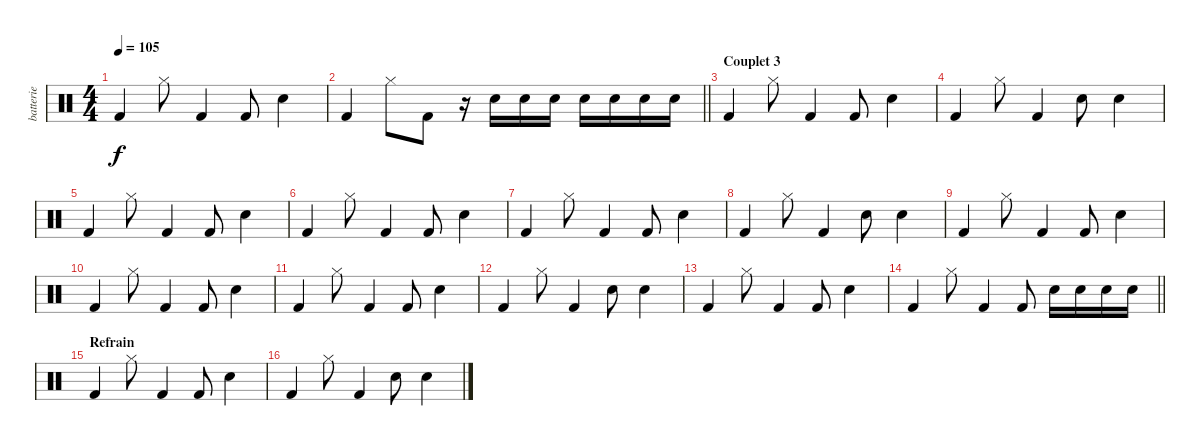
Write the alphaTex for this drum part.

\track ("batterie" "batterie") {instrument percussion}
\staff {score}
\articulation defaults
\ts (4 4)
\tempo 105
\clef neutral
\ks c "Kick (hit) 2".4{dy f} "Hi-Hat (closed)".8 "Kick (hit) 2".4 "Kick (hit) 2".8 "Electric Snare (hit)".4
|
\barLineRight lightlight "Kick (hit) 2".4 "Hi-Hat (closed)".8 "Kick (hit) 2".8
r.16 "Electric Snare (hit)".16 "Electric Snare (hit)".16 "Electric Snare (hit)".16 "Electric Snare (hit)".16 "Electric Snare (hit)".16 "Electric Snare (hit)".16 "Electric Snare (hit)".16 |
\section ("" "Couplet 3")
"Kick (hit) 2".4 "Hi-Hat (closed)".8 "Kick (hit) 2".4 "Kick (hit) 2".8 "Electric Snare (hit)".4 |
"Kick (hit) 2".4 "Hi-Hat (closed)".8 "Kick (hit) 2".4 "Electric Snare (hit)".8 "Electric Snare (hit)".4 |
"Kick (hit) 2".4 "Hi-Hat (closed)".8 "Kick (hit) 2".4 "Kick (hit) 2".8 "Electric Snare (hit)".4 |
"Kick (hit) 2".4 "Hi-Hat (closed)".8 "Kick (hit) 2".4 "Kick (hit) 2".8 "Electric Snare (hit)".4 |
"Kick (hit) 2".4 "Hi-Hat (closed)".8 "Kick (hit) 2".4 "Kick (hit) 2".8 "Electric Snare (hit)".4 |
"Kick (hit) 2".4 "Hi-Hat (closed)".8 "Kick (hit) 2".4 "Electric Snare (hit)".8 "Electric Snare (hit)".4 |
"Kick (hit) 2".4 "Hi-Hat (closed)".8 "Kick (hit) 2".4 "Kick (hit) 2".8 "Electric Snare (hit)".4 |
"Kick (hit) 2".4 "Hi-Hat (closed)".8 "Kick (hit) 2".4 "Kick (hit) 2".8 "Electric Snare (hit)".4 |
"Kick (hit) 2".4 "Hi-Hat (closed)".8 "Kick (hit) 2".4 "Kick (hit) 2".8 "Electric Snare (hit)".4 |
"Kick (hit) 2".4 "Hi-Hat (closed)".8 "Kick (hit) 2".4 "Electric Snare (hit)".8 "Electric Snare (hit)".4 |
"Kick (hit) 2".4 "Hi-Hat (closed)".8 "Kick (hit) 2".4 "Kick (hit) 2".8 "Electric Snare (hit)".4 |
\barLineRight lightlight "Kick (hit) 2".4 "Hi-Hat (closed)".8 "Kick (hit) 2".4 "Kick (hit) 2".8 "Electric Snare (hit)".16 "Electric Snare (hit)".16 "Electric Snare (hit)".16 "Electric Snare (hit)".16
|
\section ("" "Refrain")
"Kick (hit) 2".4 "Hi-Hat (closed)".8 "Kick (hit) 2".4 "Kick (hit) 2".8 "Electric Snare (hit)".4 |
"Kick (hit) 2".4 "Hi-Hat (closed)".8 "Kick (hit) 2".4 "Electric Snare (hit)".8 "Electric Snare (hit)".4
